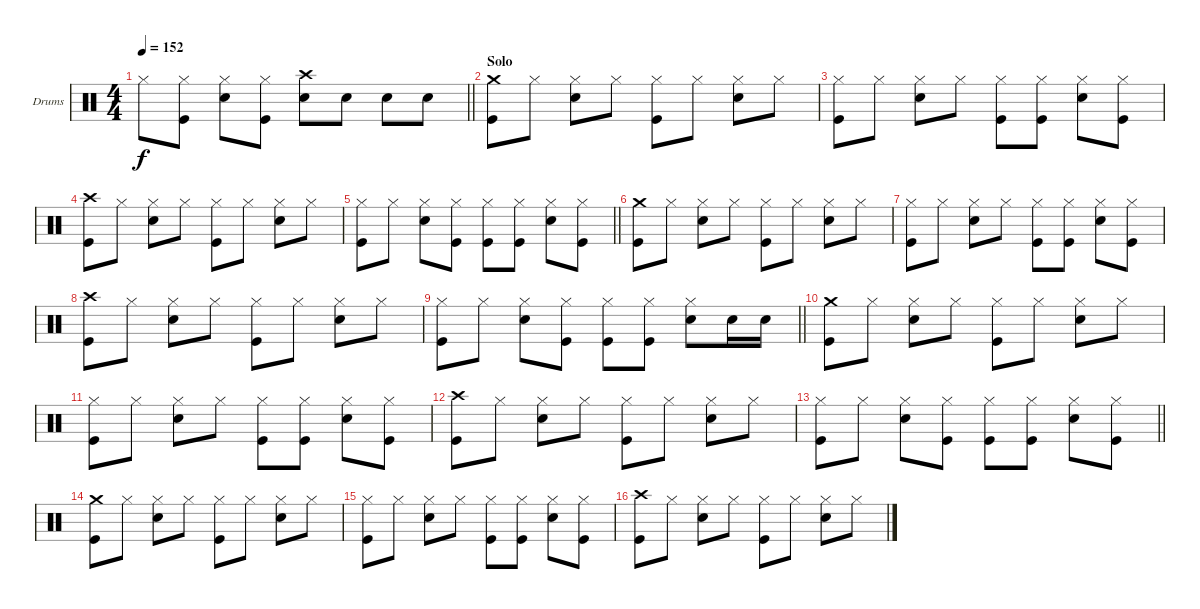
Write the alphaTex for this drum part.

\bracketExtendMode groupsimilarinstruments
\firstSystemTrackNameOrientation horizontal
\otherSystemsTrackNameOrientation horizontal
\track ("Drumkit" "Drums") {instrument percussion}
\staff {score}
\articulation defaults
\ts (4 4)
\tempo 152
\clef neutral
\barLineRight lightlight
\ks c "Hi-Hat (closed)".8{dy f}
("Hi-Hat (closed)" "Kick (hit)").8 ("Hi-Hat (closed)" "Snare (hit) 2").8 ("Hi-Hat (closed)" "Kick (hit)").8 ("Crash high (hit)" "Snare (hit) 2").8 "Snare (hit) 2".8 "Snare (hit) 2".8 "Snare (hit) 2".8 |
\section ("" "Solo")
("Crash medium (hit)" "Kick (hit)").8 "Hi-Hat (closed)".8 ("Hi-Hat (closed)" "Snare (hit) 2").8 "Hi-Hat (closed)".8 ("Hi-Hat (closed)" "Kick (hit)").8 "Hi-Hat (closed)".8 ("Hi-Hat (closed)" "Snare (hit) 2").8 "Hi-Hat (closed)".8 |
("Hi-Hat (closed)" "Kick (hit)").8 "Hi-Hat (closed)".8 ("Hi-Hat (closed)" "Snare (hit) 2").8 "Hi-Hat (closed)".8 ("Hi-Hat (closed)" "Kick (hit)").8 ("Hi-Hat (closed)" "Kick (hit)").8 ("Hi-Hat (closed)" "Snare (hit) 2").8 ("Hi-Hat (closed)" "Kick (hit)").8 |
("Crash high (hit)" "Kick (hit)").8 "Hi-Hat (closed)".8 ("Hi-Hat (closed)" "Snare (hit) 2").8 "Hi-Hat (closed)".8 ("Hi-Hat (closed)" "Kick (hit)").8 "Hi-Hat (closed)".8 ("Hi-Hat (closed)" "Snare (hit) 2").8 "Hi-Hat (closed)".8 |
\barLineRight lightlight
("Hi-Hat (closed)" "Kick (hit)").8 "Hi-Hat (closed)".8 ("Hi-Hat (closed)" "Snare (hit) 2").8 ("Hi-Hat (closed)" "Kick (hit)").8 ("Hi-Hat (closed)" "Kick (hit)").8 ("Hi-Hat (closed)" "Kick (hit)").8 ("Hi-Hat (closed)" "Snare (hit) 2").8 ("Hi-Hat (closed)" "Kick (hit)").8 |
("Crash medium (hit)" "Kick (hit)").8 "Hi-Hat (closed)".8 ("Hi-Hat (closed)" "Snare (hit) 2").8 "Hi-Hat (closed)".8 ("Hi-Hat (closed)" "Kick (hit)").8 "Hi-Hat (closed)".8 ("Hi-Hat (closed)" "Snare (hit) 2").8 "Hi-Hat (closed)".8 |
("Hi-Hat (closed)" "Kick (hit)").8 "Hi-Hat (closed)".8 ("Hi-Hat (closed)" "Snare (hit) 2").8 "Hi-Hat (closed)".8 ("Hi-Hat (closed)" "Kick (hit)").8 ("Hi-Hat (closed)" "Kick (hit)").8 ("Hi-Hat (closed)" "Snare (hit) 2").8 ("Hi-Hat (closed)" "Kick (hit)").8 |
("Crash high (hit)" "Kick (hit)").8 "Hi-Hat (closed)".8 ("Hi-Hat (closed)" "Snare (hit) 2").8 "Hi-Hat (closed)".8 ("Hi-Hat (closed)" "Kick (hit)").8 "Hi-Hat (closed)".8 ("Hi-Hat (closed)" "Snare (hit) 2").8 "Hi-Hat (closed)".8 |
\barLineRight lightlight
("Hi-Hat (closed)" "Kick (hit)").8 "Hi-Hat (closed)".8 ("Hi-Hat (closed)" "Snare (hit) 2").8 ("Hi-Hat (closed)" "Kick (hit)").8 ("Hi-Hat (closed)" "Kick (hit)").8 ("Hi-Hat (closed)" "Kick (hit)").8 ("Hi-Hat (closed)" "Snare (hit) 2").8 "Snare (hit) 2".16 "Snare (hit) 2".16 |
("Crash medium (hit)" "Kick (hit)").8 "Hi-Hat (closed)".8 ("Hi-Hat (closed)" "Snare (hit) 2").8 "Hi-Hat (closed)".8 ("Hi-Hat (closed)" "Kick (hit)").8 "Hi-Hat (closed)".8 ("Hi-Hat (closed)" "Snare (hit) 2").8 "Hi-Hat (closed)".8 |
("Hi-Hat (closed)" "Kick (hit)").8 "Hi-Hat (closed)".8 ("Hi-Hat (closed)" "Snare (hit) 2").8 "Hi-Hat (closed)".8 ("Hi-Hat (closed)" "Kick (hit)").8 ("Hi-Hat (closed)" "Kick (hit)").8 ("Hi-Hat (closed)" "Snare (hit) 2").8 ("Hi-Hat (closed)" "Kick (hit)").8 |
("Crash high (hit)" "Kick (hit)").8 "Hi-Hat (closed)".8 ("Hi-Hat (closed)" "Snare (hit) 2").8 "Hi-Hat (closed)".8 ("Hi-Hat (closed)" "Kick (hit)").8 "Hi-Hat (closed)".8 ("Hi-Hat (closed)" "Snare (hit) 2").8 "Hi-Hat (closed)".8 |
\barLineRight lightlight
("Hi-Hat (closed)" "Kick (hit)").8 "Hi-Hat (closed)".8 ("Hi-Hat (closed)" "Snare (hit) 2").8 ("Hi-Hat (closed)" "Kick (hit)").8 ("Hi-Hat (closed)" "Kick (hit)").8 ("Hi-Hat (closed)" "Kick (hit)").8 ("Hi-Hat (closed)" "Snare (hit) 2").8 ("Hi-Hat (closed)" "Kick (hit)").8 |
("Crash medium (hit)" "Kick (hit)").8 "Hi-Hat (closed)".8 ("Hi-Hat (closed)" "Snare (hit) 2").8 "Hi-Hat (closed)".8 ("Hi-Hat (closed)" "Kick (hit)").8 "Hi-Hat (closed)".8 ("Hi-Hat (closed)" "Snare (hit) 2").8 "Hi-Hat (closed)".8 |
("Hi-Hat (closed)" "Kick (hit)").8 "Hi-Hat (closed)".8 ("Hi-Hat (closed)" "Snare (hit) 2").8 "Hi-Hat (closed)".8 ("Hi-Hat (closed)" "Kick (hit)").8 ("Hi-Hat (closed)" "Kick (hit)").8 ("Hi-Hat (closed)" "Snare (hit) 2").8 ("Hi-Hat (closed)" "Kick (hit)").8 |
("Crash high (hit)" "Kick (hit)").8 "Hi-Hat (closed)".8 ("Hi-Hat (closed)" "Snare (hit) 2").8 "Hi-Hat (closed)".8 ("Hi-Hat (closed)" "Kick (hit)").8 "Hi-Hat (closed)".8 ("Hi-Hat (closed)" "Snare (hit) 2").8 "Hi-Hat (closed)".8
